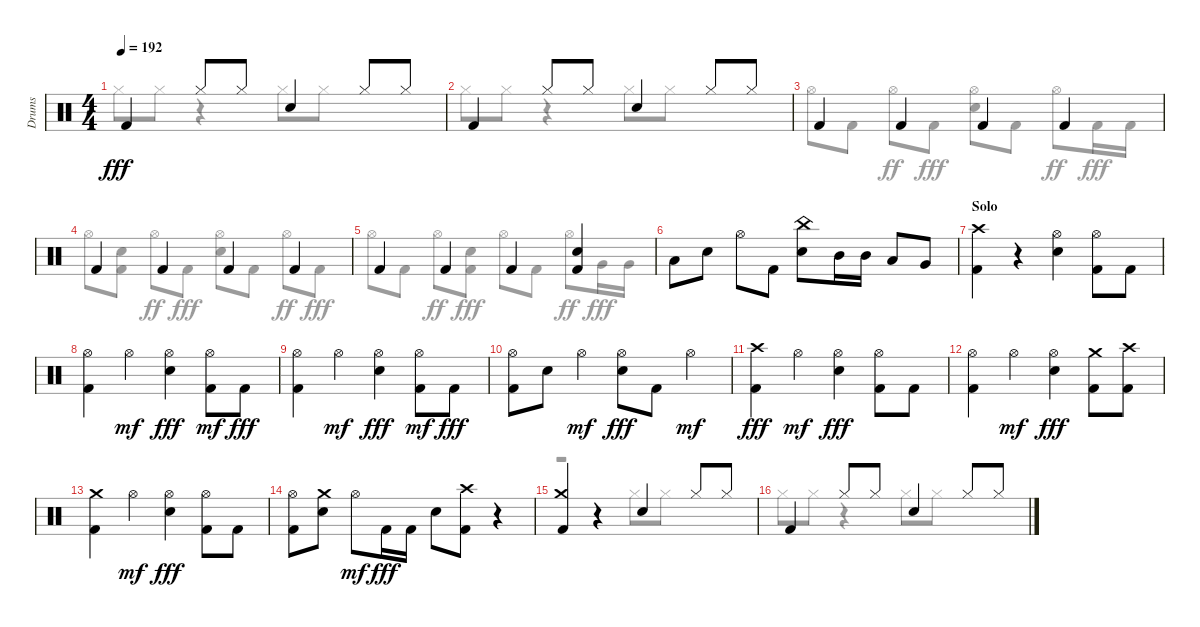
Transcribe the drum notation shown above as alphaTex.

\track ("Drums" "Drums") {instrument percussion}
\staff {score}
\articulation defaults
\voice
\ts (4 4)
\tempo 192
\clef neutral
\ks aminor "Kick (hit) 2".4{dy fff} "Hi-Hat (closed)".8 "Hi-Hat (closed)".8 "Snare (hit) 2".4 "Hi-Hat (closed)".8 "Hi-Hat (closed)".8
|
"Kick (hit) 2".4 "Hi-Hat (closed)".8 "Hi-Hat (closed)".8 "Snare (hit) 2".4 "Hi-Hat (closed)".8 "Hi-Hat (closed)".8 |
"Kick (hit) 2".4 "Kick (hit) 2".4 "Kick (hit) 2".4 "Kick (hit) 2".4 |
"Kick (hit) 2".4 "Kick (hit) 2".4 "Kick (hit) 2".4 "Kick (hit) 2".4 |
"Kick (hit) 2".4 "Kick (hit) 2".4 "Kick (hit) 2".4 ("Kick (hit) 2" "Snare (hit) 2").4 |
"Low Floor Tom (hit)".8 "Snare (hit) 2".8 "Hi-Hat (open)".8 "Kick (hit) 2".8 ("China (hit)" "Snare (hit) 2").8 "Mid Tom (hit)".16 "Mid Tom (hit)".16 "Low Tom (hit)".8 "Very Low Tom (hit)".8 |
\section ("" "Solo")
("Kick (hit) 2" "Crash high (hit)").4 r.4 ("Snare (hit) 2" "Hi-Hat (open)").4 ("Kick (hit) 2" "Hi-Hat (open)").8 "Kick (hit) 2".8 |
("Kick (hit) 2" "Hi-Hat (open)").4 "Hi-Hat (open)".4{dy mf} ("Hi-Hat (open)" "Snare (hit) 2").4{dy fff} ("Hi-Hat (open)" "Kick (hit) 2").8{dy mf} "Kick (hit) 2".8{dy fff} |
("Hi-Hat (open)" "Kick (hit) 2").4 "Hi-Hat (open)".4{dy mf} ("Snare (hit) 2" "Hi-Hat (open)").4{dy fff} ("Kick (hit) 2" "Hi-Hat (open)").8{dy mf} "Kick (hit) 2".8{dy fff} |
("Hi-Hat (open)" "Kick (hit) 2").8 "Snare (hit) 2".8 "Hi-Hat (open)".4{dy mf} ("Hi-Hat (open)" "Snare (hit) 2").8{dy fff} "Kick (hit) 2".8 "Hi-Hat (open)".4{dy mf} |
("Kick (hit) 2" "Crash high (hit)").4{dy fff} "Hi-Hat (open)".4{dy mf} ("Snare (hit) 2" "Hi-Hat (open)").4{dy fff} ("Kick (hit) 2" "Hi-Hat (open)").8 "Kick (hit) 2".8 |
("Hi-Hat (open)" "Kick (hit) 2").4 "Hi-Hat (open)".4{dy mf} ("Hi-Hat (open)" "Snare (hit) 2").4{dy fff} ("Kick (hit) 2" "Crash medium (hit)").8 ("Kick (hit) 2" "Crash high (hit)").8 |
("Kick (hit) 2" "Crash medium (hit)").4 "Hi-Hat (open)".4{dy mf} ("Snare (hit) 2" "Hi-Hat (open)").4{dy fff} ("Kick (hit) 2" "Hi-Hat (open)").8 "Kick (hit) 2".8 |
("Hi-Hat (open)" "Kick (hit) 2").8 ("Snare (hit) 2" "Crash medium (hit)").8 "Hi-Hat (open)".8{dy mf} "Kick (hit) 2".16{dy fff} "Kick (hit) 2".16 "Snare (hit) 2".8 ("Kick (hit) 2" "Crash high (hit)").8 r.4 |
("Crash medium (hit)" "Kick (hit) 2").4 r.4 "Snare (hit) 2".4 "Hi-Hat (closed)".8 "Hi-Hat (closed)".8 |
"Kick (hit) 2".4 "Hi-Hat (closed)".8 "Hi-Hat (closed)".8 "Snare (hit) 2".4 "Hi-Hat (closed)".8 "Hi-Hat (closed)".8
\voice
\clef neutral
\ottava regular
\simile none
\ks aminor "Hi-Hat (closed)".8{dy fff} "Hi-Hat (closed)".8
r.4 "Hi-Hat (closed)".8 "Hi-Hat (closed)".8 |
"Hi-Hat (closed)".8 "Hi-Hat (closed)".8 r.4 "Hi-Hat (closed)".8 "Hi-Hat (closed)".8 |
"Hi-Hat (open)".8 "Kick (hit) 2".8 "Hi-Hat (open)".8{dy ff} "Kick (hit) 2".8{dy fff} ("Hi-Hat (open)" "Snare (hit) 2").8 "Kick (hit) 2".8 "Hi-Hat (open)".8{dy ff} "Kick (hit) 2".16{dy fff} "Kick (hit) 2".16 |
"Hi-Hat (open)".8 ("Snare (hit) 2" "Kick (hit) 2").8 "Hi-Hat (open)".8{dy ff} "Kick (hit) 2".8{dy fff} ("Hi-Hat (open)" "Snare (hit) 2").8 "Kick (hit) 2".8 "Hi-Hat (open)".8{dy ff} "Kick (hit) 2".8{dy fff} |
"Hi-Hat (open)".8 "Kick (hit) 2".8 "Hi-Hat (open)".8{dy ff} ("Snare (hit) 2" "Kick (hit) 2").8{dy fff} "Hi-Hat (open)".8 "Kick (hit) 2".8 "Hi-Hat (open)".8{dy ff} "Very Low Tom (hit)".16{dy fff} "Very Low Tom (hit)".16 |
|
|
|
|
|
|
|
|
|
r.2 "Hi-Hat (closed)".8 "Hi-Hat (closed)".8 |
"Hi-Hat (closed)".8 "Hi-Hat (closed)".8 r.4 "Hi-Hat (closed)".8 "Hi-Hat (closed)".8
